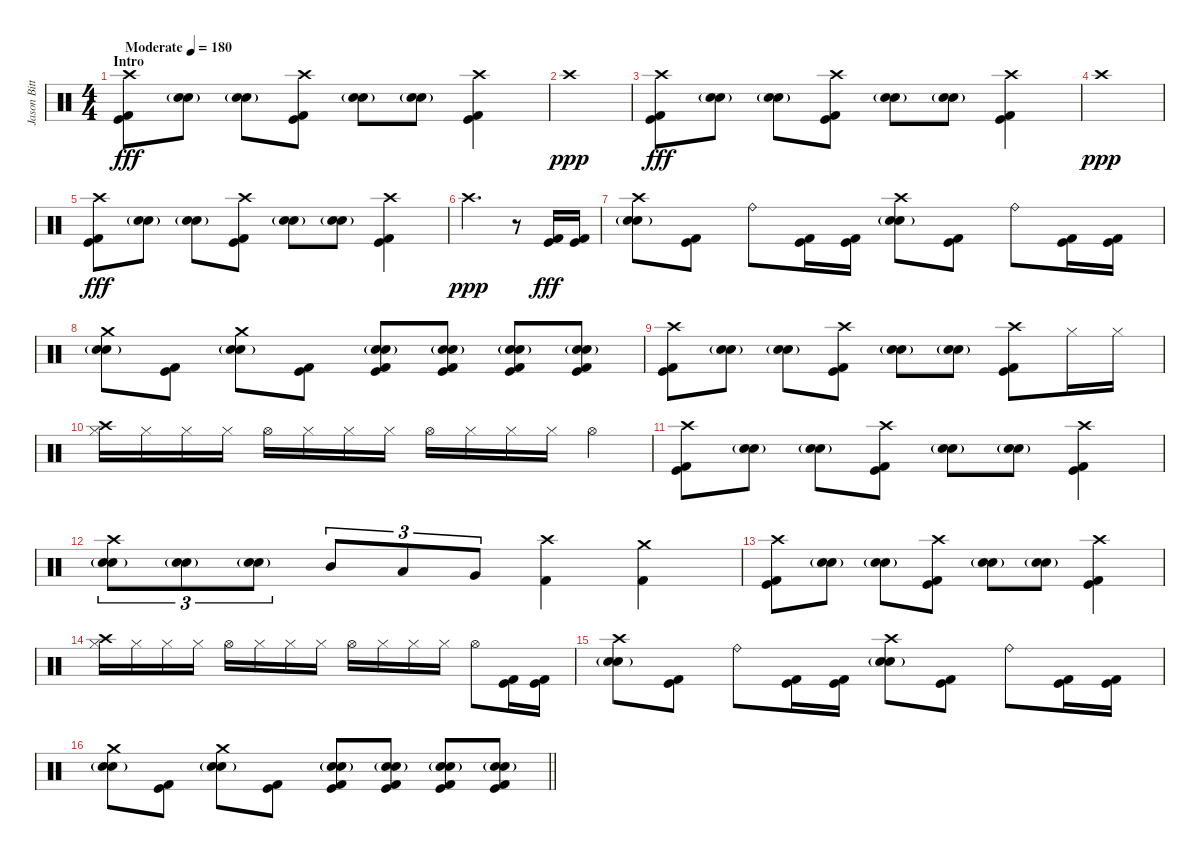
\track ("Jason Bittner" "Jason Bitt") {instrument percussion}
\staff {score}
\articulation defaults
\ts (4 4)
\section ("" "Intro")
\tempo (180 "Moderate")
\clef neutral
\ks c
("Crash high (hit)" "Kick (hit)" "Kick (hit) 2").8{dy fff} ("Snare (hit) 2"{g} "Electric Snare (hit)").8 ("Snare (hit) 2"{g} "Electric Snare (hit)").8 ("Crash high (hit)" "Kick (hit)" "Kick (hit) 2").8 ("Snare (hit) 2"{g} "Electric Snare (hit)").8 ("Snare (hit) 2"{g} "Electric Snare (hit)").8 ("Crash high (hit)" "Kick (hit)" "Kick (hit) 2").4 |
"Crash high (hit)".1{dy ppp} |
("Crash high (hit)" "Kick (hit)" "Kick (hit) 2").8{dy fff} ("Snare (hit) 2"{g} "Electric Snare (hit)").8 ("Snare (hit) 2"{g} "Electric Snare (hit)").8 ("Crash high (hit)" "Kick (hit)" "Kick (hit) 2").8 ("Snare (hit) 2"{g} "Electric Snare (hit)").8 ("Snare (hit) 2"{g} "Electric Snare (hit)").8 ("Crash high (hit)" "Kick (hit)" "Kick (hit) 2").4 |
"Crash high (hit)".1{dy ppp} |
("Crash high (hit)" "Kick (hit)" "Kick (hit) 2").8{dy fff} ("Snare (hit) 2"{g} "Electric Snare (hit)").8 ("Snare (hit) 2"{g} "Electric Snare (hit)").8 ("Crash high (hit)" "Kick (hit)" "Kick (hit) 2").8 ("Snare (hit) 2"{g} "Electric Snare (hit)").8 ("Snare (hit) 2"{g} "Electric Snare (hit)").8 ("Crash high (hit)" "Kick (hit)" "Kick (hit) 2").4 |
"Crash high (hit)".2{d dy ppp} r.8 ("Kick (hit)" "Kick (hit) 2").16{dy fff} ("Kick (hit)" "Kick (hit) 2").16 |
("Crash high (hit)" "Snare (hit) 2"{g} "Electric Snare (hit)").8 ("Kick (hit)" "Kick (hit) 2").8 "Ride (bell)".8 ("Kick (hit)" "Kick (hit) 2").16 ("Kick (hit)" "Kick (hit) 2").16 ("Crash high (hit)" "Snare (hit) 2"{g} "Electric Snare (hit)").8 ("Kick (hit)" "Kick (hit) 2").8 "Ride (bell)".8 ("Kick (hit)" "Kick (hit) 2").16 ("Kick (hit)" "Kick (hit) 2").16 |
("Crash medium (hit)" "Snare (hit) 2"{g} "Electric Snare (hit)").8 ("Kick (hit)" "Kick (hit) 2").8 ("Crash medium (hit)" "Snare (hit) 2"{g} "Electric Snare (hit)").8 ("Kick (hit)" "Kick (hit) 2").8 ("Snare (hit) 2"{g} "Electric Snare (hit)" "Kick (hit)" "Kick (hit) 2").8 ("Snare (hit) 2"{g} "Electric Snare (hit)" "Kick (hit)" "Kick (hit) 2").8 ("Snare (hit) 2"{g} "Electric Snare (hit)" "Kick (hit)" "Kick (hit) 2").8 ("Snare (hit) 2"{g} "Electric Snare (hit)" "Kick (hit)" "Kick (hit) 2").8 |
("Crash high (hit)" "Kick (hit)" "Kick (hit) 2").8 ("Snare (hit) 2"{g} "Electric Snare (hit)").8 ("Snare (hit) 2"{g} "Electric Snare (hit)").8 ("Crash high (hit)" "Kick (hit)" "Kick (hit) 2").8 ("Snare (hit) 2"{g} "Electric Snare (hit)").8 ("Snare (hit) 2"{g} "Electric Snare (hit)").8 ("Crash high (hit)" "Kick (hit)" "Kick (hit) 2").8 "Hi-Hat (closed)".16 "Hi-Hat (closed)".16 |
("Crash high (hit)" "Hi-Hat (closed)").16 "Hi-Hat (closed)".16 "Hi-Hat (closed)".16 "Hi-Hat (closed)".16 "Hi-Hat (open)".16 "Hi-Hat (closed)".16 "Hi-Hat (closed)".16 "Hi-Hat (closed)".16 "Hi-Hat (open)".16 "Hi-Hat (closed)".16 "Hi-Hat (closed)".16 "Hi-Hat (closed)".16 "Hi-Hat (open)".4 |
("Crash high (hit)" "Kick (hit)" "Kick (hit) 2").8 ("Snare (hit) 2"{g} "Electric Snare (hit)").8 ("Snare (hit) 2"{g} "Electric Snare (hit)").8 ("Crash high (hit)" "Kick (hit)" "Kick (hit) 2").8 ("Snare (hit) 2"{g} "Electric Snare (hit)").8 ("Snare (hit) 2"{g} "Electric Snare (hit)").8 ("Crash high (hit)" "Kick (hit)" "Kick (hit) 2").4 |
("Crash high (hit)" "Snare (hit) 2"{g} "Electric Snare (hit)").8{tu (3 2)} ("Snare (hit) 2"{g} "Electric Snare (hit)").8{tu (3 2)} ("Snare (hit) 2"{g} "Electric Snare (hit)").8{tu (3 2)} "Mid Tom (hit)".8{tu (3 2)} "Low Tom (hit)".8{tu (3 2)} "Very Low Tom (hit)".8{tu (3 2)} ("Crash high (hit)" "Kick (hit) 2").4 ("Crash medium (hit)" "Kick (hit) 2").4 |
("Crash high (hit)" "Kick (hit)" "Kick (hit) 2").8 ("Snare (hit) 2"{g} "Electric Snare (hit)").8 ("Snare (hit) 2"{g} "Electric Snare (hit)").8 ("Crash high (hit)" "Kick (hit)" "Kick (hit) 2").8 ("Snare (hit) 2"{g} "Electric Snare (hit)").8 ("Snare (hit) 2"{g} "Electric Snare (hit)").8 ("Crash high (hit)" "Kick (hit)" "Kick (hit) 2").4 |
("Crash high (hit)" "Hi-Hat (closed)").16 "Hi-Hat (closed)".16 "Hi-Hat (closed)".16 "Hi-Hat (closed)".16 "Hi-Hat (open)".16 "Hi-Hat (closed)".16 "Hi-Hat (closed)".16 "Hi-Hat (closed)".16 "Hi-Hat (open)".16 "Hi-Hat (closed)".16 "Hi-Hat (closed)".16 "Hi-Hat (closed)".16 "Hi-Hat (open)".8 ("Kick (hit)" "Kick (hit) 2").16 ("Kick (hit)" "Kick (hit) 2").16 |
("Crash high (hit)" "Snare (hit) 2"{g} "Electric Snare (hit)").8 ("Kick (hit)" "Kick (hit) 2").8 "Ride (bell)".8 ("Kick (hit)" "Kick (hit) 2").16 ("Kick (hit)" "Kick (hit) 2").16 ("Crash high (hit)" "Snare (hit) 2"{g} "Electric Snare (hit)").8 ("Kick (hit)" "Kick (hit) 2").8 "Ride (bell)".8 ("Kick (hit)" "Kick (hit) 2").16 ("Kick (hit)" "Kick (hit) 2").16 |
\barLineRight lightlight
("Crash medium (hit)" "Snare (hit) 2"{g} "Electric Snare (hit)").8 ("Kick (hit)" "Kick (hit) 2").8 ("Crash medium (hit)" "Snare (hit) 2"{g} "Electric Snare (hit)").8 ("Kick (hit)" "Kick (hit) 2").8 ("Snare (hit) 2"{g} "Electric Snare (hit)" "Kick (hit)" "Kick (hit) 2").8 ("Snare (hit) 2"{g} "Electric Snare (hit)" "Kick (hit)" "Kick (hit) 2").8 ("Snare (hit) 2"{g} "Electric Snare (hit)" "Kick (hit)" "Kick (hit) 2").8 ("Snare (hit) 2"{g} "Electric Snare (hit)" "Kick (hit)" "Kick (hit) 2").8
